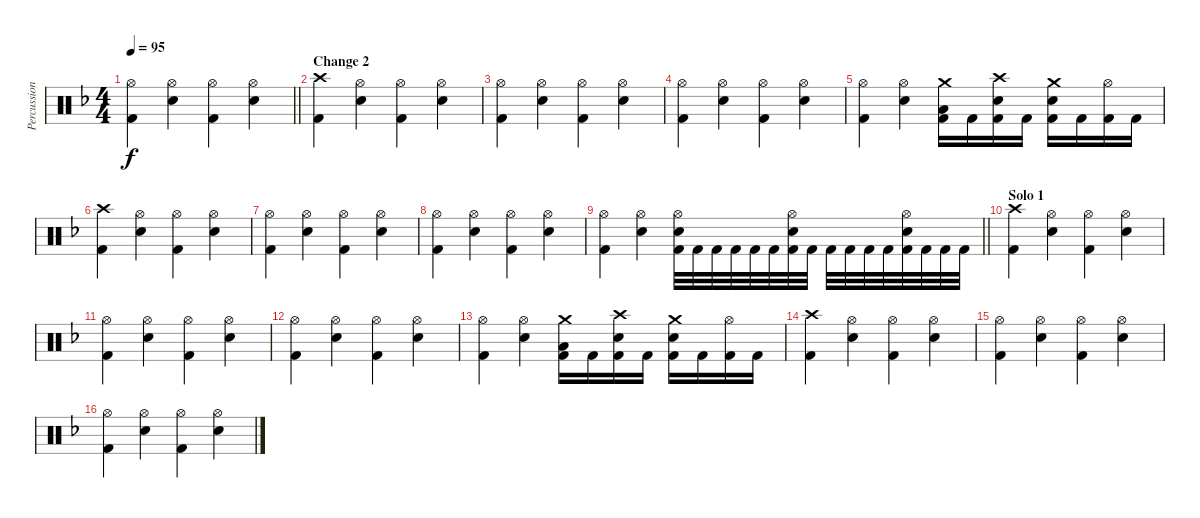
\track ("Percussions (Scott Travis)" "Percussion") {instrument percussion}
\staff {score}
\articulation defaults
\ts (4 4)
\tempo 95
\clef neutral
\barLineRight lightlight
\ks dminor
("Hi-Hat (open)" "Kick (hit) 2").4{dy f} ("Hi-Hat (open)" "Snare (hit) 2").4 ("Hi-Hat (open)" "Kick (hit) 2").4 ("Hi-Hat (open)" "Snare (hit) 2").4 |
\section ("" "Change 2")
("Crash high (hit)" "Kick (hit) 2").4 ("Hi-Hat (open)" "Snare (hit) 2").4 ("Hi-Hat (open)" "Kick (hit) 2").4 ("Hi-Hat (open)" "Snare (hit) 2").4 |
("Hi-Hat (open)" "Kick (hit) 2").4 ("Hi-Hat (open)" "Snare (hit) 2").4 ("Hi-Hat (open)" "Kick (hit) 2").4 ("Hi-Hat (open)" "Snare (hit) 2").4 |
("Hi-Hat (open)" "Kick (hit) 2").4 ("Hi-Hat (open)" "Snare (hit) 2").4 ("Hi-Hat (open)" "Kick (hit) 2").4 ("Hi-Hat (open)" "Snare (hit) 2").4 |
("Hi-Hat (open)" "Kick (hit) 2").4 ("Hi-Hat (open)" "Snare (hit) 2").4 ("Crash medium (hit)" "Low Tom (hit)" "Kick (hit) 2").16 "Kick (hit) 2".16 ("Crash high (hit)" "Snare (hit) 2" "Kick (hit) 2").16 "Kick (hit) 2".16 ("Crash medium (hit)" "Snare (hit) 2" "Kick (hit) 2").16 "Kick (hit) 2".16 ("Hi-Hat (open)" "Kick (hit) 2").16 "Kick (hit) 2".16 |
("Crash high (hit)" "Kick (hit) 2").4 ("Hi-Hat (open)" "Snare (hit) 2").4 ("Hi-Hat (open)" "Kick (hit) 2").4 ("Hi-Hat (open)" "Snare (hit) 2").4 |
("Hi-Hat (open)" "Kick (hit) 2").4 ("Hi-Hat (open)" "Snare (hit) 2").4 ("Hi-Hat (open)" "Kick (hit) 2").4 ("Hi-Hat (open)" "Snare (hit) 2").4 |
("Hi-Hat (open)" "Kick (hit) 2").4 ("Hi-Hat (open)" "Snare (hit) 2").4 ("Hi-Hat (open)" "Kick (hit) 2").4 ("Hi-Hat (open)" "Snare (hit) 2").4 |
\barLineRight lightlight
("Hi-Hat (open)" "Kick (hit) 2").4 ("Hi-Hat (open)" "Snare (hit) 2").4 ("Hi-Hat (open)" "Snare (hit) 2" "Kick (hit) 2").32 "Kick (hit) 2".32 "Kick (hit) 2".32 "Kick (hit) 2".32 "Kick (hit) 2".32 "Kick (hit) 2".32 ("Hi-Hat (open)" "Snare (hit) 2" "Kick (hit) 2").32 "Kick (hit) 2".32 "Kick (hit) 2".32 "Kick (hit) 2".32 "Kick (hit) 2".32 "Kick (hit) 2".32 ("Hi-Hat (open)" "Snare (hit) 2" "Kick (hit) 2").32 "Kick (hit) 2".32 "Kick (hit) 2".32 "Kick (hit) 2".32 |
\section ("" "Solo 1")
("Crash high (hit)" "Kick (hit) 2").4 ("Hi-Hat (open)" "Snare (hit) 2").4 ("Hi-Hat (open)" "Kick (hit) 2").4 ("Hi-Hat (open)" "Snare (hit) 2").4 |
("Hi-Hat (open)" "Kick (hit) 2").4 ("Hi-Hat (open)" "Snare (hit) 2").4 ("Hi-Hat (open)" "Kick (hit) 2").4 ("Hi-Hat (open)" "Snare (hit) 2").4 |
("Hi-Hat (open)" "Kick (hit) 2").4 ("Hi-Hat (open)" "Snare (hit) 2").4 ("Hi-Hat (open)" "Kick (hit) 2").4 ("Hi-Hat (open)" "Snare (hit) 2").4 |
("Hi-Hat (open)" "Kick (hit) 2").4 ("Hi-Hat (open)" "Snare (hit) 2").4 ("Crash medium (hit)" "Low Tom (hit)" "Kick (hit) 2").16 "Kick (hit) 2".16 ("Crash high (hit)" "Snare (hit) 2" "Kick (hit) 2").16 "Kick (hit) 2".16 ("Crash medium (hit)" "Snare (hit) 2" "Kick (hit) 2").16 "Kick (hit) 2".16 ("Hi-Hat (open)" "Kick (hit) 2").16 "Kick (hit) 2".16 |
("Crash high (hit)" "Kick (hit) 2").4 ("Hi-Hat (open)" "Snare (hit) 2").4 ("Hi-Hat (open)" "Kick (hit) 2").4 ("Hi-Hat (open)" "Snare (hit) 2").4 |
("Hi-Hat (open)" "Kick (hit) 2").4 ("Hi-Hat (open)" "Snare (hit) 2").4 ("Hi-Hat (open)" "Kick (hit) 2").4 ("Hi-Hat (open)" "Snare (hit) 2").4 |
("Hi-Hat (open)" "Kick (hit) 2").4 ("Hi-Hat (open)" "Snare (hit) 2").4 ("Hi-Hat (open)" "Kick (hit) 2").4 ("Hi-Hat (open)" "Snare (hit) 2").4
